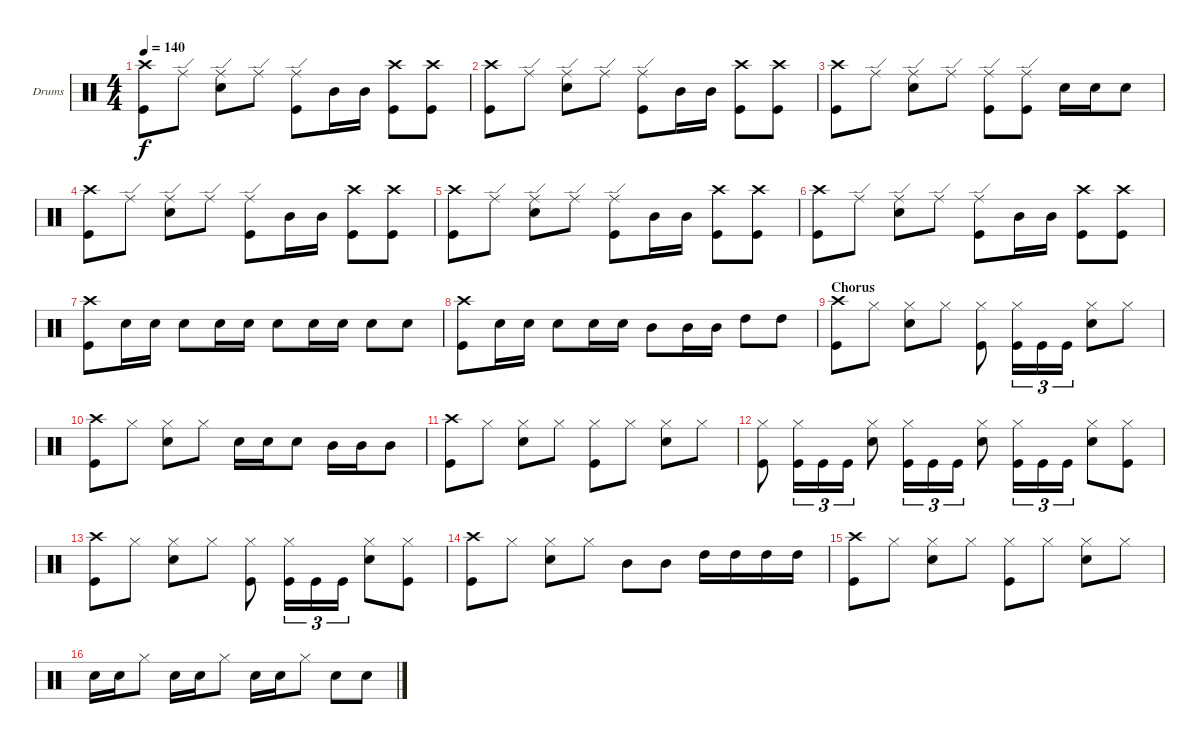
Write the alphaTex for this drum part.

\defaultSystemsLayout 4
\bracketExtendMode groupsimilarinstruments
\firstSystemTrackNameOrientation horizontal
\otherSystemsTrackNameOrientation horizontal
\track ("Drums" "Drums") {instrument percussion}
\staff {score}
\articulation defaults
\ts (4 4)
\tempo 140
\clef neutral
\ks c
("Crash high (hit)" "Kick (hit)").8{dy f} "Ride (edge)".8 ("Snare (hit) 2" "Ride (edge)").8 "Ride (edge)".8 ("Ride (edge)" "Kick (hit)").8 "Mid Tom (hit)".16 "Mid Tom (hit)".16 ("Crash high (hit)" "Kick (hit)").8 ("Crash high (hit)" "Kick (hit)").8 |
("Crash high (hit)" "Kick (hit)").8 "Ride (edge)".8 ("Snare (hit) 2" "Ride (edge)").8 "Ride (edge)".8 ("Ride (edge)" "Kick (hit)").8 "Mid Tom (hit)".16 "Mid Tom (hit)".16 ("Crash high (hit)" "Kick (hit)").8 ("Crash high (hit)" "Kick (hit)").8 |
("Crash high (hit)" "Kick (hit)").8 "Ride (edge)".8 ("Snare (hit) 2" "Ride (edge)").8 "Ride (edge)".8 ("Kick (hit)" "Ride (edge)").8 ("Ride (edge)" "Kick (hit)").8 "Snare (hit) 2".16 "Snare (hit) 2".16 "Snare (hit) 2".8 |
("Crash high (hit)" "Kick (hit)").8 "Ride (edge)".8 ("Snare (hit) 2" "Ride (edge)").8 "Ride (edge)".8 ("Ride (edge)" "Kick (hit)").8 "Mid Tom (hit)".16 "Mid Tom (hit)".16 ("Crash high (hit)" "Kick (hit)").8 ("Crash high (hit)" "Kick (hit)").8 |
("Crash high (hit)" "Kick (hit)").8 "Ride (edge)".8 ("Snare (hit) 2" "Ride (edge)").8 "Ride (edge)".8 ("Ride (edge)" "Kick (hit)").8 "Mid Tom (hit)".16 "Mid Tom (hit)".16 ("Crash high (hit)" "Kick (hit)").8 ("Crash high (hit)" "Kick (hit)").8 |
("Crash high (hit)" "Kick (hit)").8 "Ride (edge)".8 ("Snare (hit) 2" "Ride (edge)").8 "Ride (edge)".8 ("Ride (edge)" "Kick (hit)").8 "Mid Tom (hit)".16 "Mid Tom (hit)".16 ("Crash high (hit)" "Kick (hit)").8 ("Crash high (hit)" "Kick (hit)").8 |
("Kick (hit)" "Crash high (hit)").8 "Snare (hit) 2".16 "Snare (hit) 2".16 "Snare (hit) 2".8 "Snare (hit) 2".16 "Snare (hit) 2".16 "Snare (hit) 2".8 "Snare (hit) 2".16 "Snare (hit) 2".16 "Snare (hit) 2".8 "Snare (hit) 2".8 |
("Crash high (hit)" "Kick (hit)").8 "Snare (hit) 2".16 "Snare (hit) 2".16 "Snare (hit) 2".8 "Snare (hit) 2".16 "Snare (hit) 2".16 "Mid Tom (hit)".8 "Mid Tom (hit)".16 "Mid Tom (hit)".16 "High Tom (hit)".8 "High Tom (hit)".8 |
\section ("" "Chorus")
("Crash high (hit)" "Kick (hit)").8 "Hi-Hat (closed)".8 ("Snare (hit) 2" "Hi-Hat (closed)").8 "Hi-Hat (closed)".8 ("Kick (hit)" "Hi-Hat (closed)").8 ("Kick (hit)" "Hi-Hat (closed)").16{tu (3 2)} "Kick (hit)".16{tu (3 2)} "Kick (hit)".16{tu (3 2)} ("Snare (hit) 2" "Hi-Hat (closed)").8 "Hi-Hat (closed)".8 |
("Kick (hit)" "Crash high (hit)").8 "Hi-Hat (closed)".8 ("Snare (hit) 2" "Hi-Hat (closed)").8 "Hi-Hat (closed)".8 "Snare (hit) 2".16 "Snare (hit) 2".16 "Snare (hit) 2".8 "Mid Tom (hit)".16 "Mid Tom (hit)".16 "Mid Tom (hit)".8 |
("Crash high (hit)" "Kick (hit)").8 "Hi-Hat (closed)".8 ("Snare (hit) 2" "Hi-Hat (closed)").8 "Hi-Hat (closed)".8 ("Hi-Hat (closed)" "Kick (hit)").8 "Hi-Hat (closed)".8 ("Snare (hit) 2" "Hi-Hat (closed)").8 "Hi-Hat (closed)".8 |
("Kick (hit)" "Hi-Hat (closed)").8 ("Kick (hit)" "Hi-Hat (closed)").16{tu (3 2)} "Kick (hit)".16{tu (3 2)} "Kick (hit)".16{tu (3 2)} ("Snare (hit) 2" "Hi-Hat (closed)").8 ("Kick (hit)" "Hi-Hat (closed)").16{tu (3 2)} "Kick (hit)".16{tu (3 2)} "Kick (hit)".16{tu (3 2)} ("Snare (hit) 2" "Hi-Hat (closed)").8 ("Kick (hit)" "Hi-Hat (closed)").16{tu (3 2)} "Kick (hit)".16{tu (3 2)} "Kick (hit)".16{tu (3 2)} ("Snare (hit) 2" "Hi-Hat (closed)").8 ("Kick (hit)" "Hi-Hat (closed)").8 |
("Crash high (hit)" "Kick (hit)").8 "Hi-Hat (closed)".8 ("Snare (hit) 2" "Hi-Hat (closed)").8 "Hi-Hat (closed)".8 ("Hi-Hat (closed)" "Kick (hit)").8 ("Hi-Hat (closed)" "Kick (hit)").16{tu (3 2)} "Kick (hit)".16{tu (3 2)} "Kick (hit)".16{tu (3 2)} ("Snare (hit) 2" "Hi-Hat (closed)").8 ("Hi-Hat (closed)" "Kick (hit)").8 |
("Kick (hit)" "Crash high (hit)").8 "Hi-Hat (closed)".8 ("Snare (hit) 2" "Hi-Hat (closed)").8 "Hi-Hat (closed)".8 "Mid Tom (hit)".8 "Mid Tom (hit)".8 "High Tom (hit)".16 "High Tom (hit)".16 "High Tom (hit)".16 "High Tom (hit)".16 |
("Crash high (hit)" "Kick (hit)").8 "Hi-Hat (closed)".8 ("Snare (hit) 2" "Hi-Hat (closed)").8 "Hi-Hat (closed)".8 ("Hi-Hat (closed)" "Kick (hit)").8 "Hi-Hat (closed)".8 ("Snare (hit) 2" "Hi-Hat (closed)").8 "Hi-Hat (closed)".8 |
"Snare (hit) 2".16 "Snare (hit) 2".16 "Hi-Hat (closed)".8 "Snare (hit) 2".16 "Snare (hit) 2".16 "Hi-Hat (closed)".8 "Snare (hit) 2".16 "Snare (hit) 2".16 "Hi-Hat (closed)".8 "Snare (hit) 2".8 "Snare (hit) 2".8
